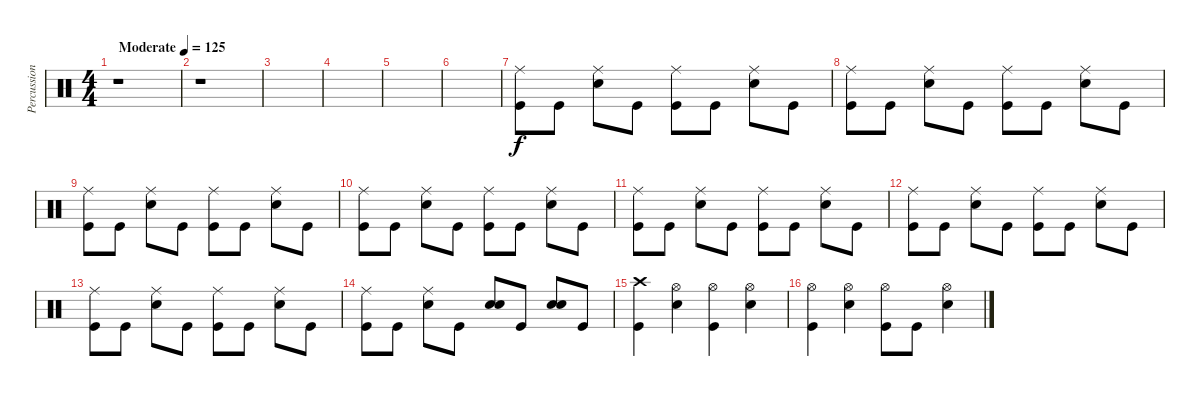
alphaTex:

\track ("Percussion" "Percussion") {instrument percussion}
\staff {score}
\articulation defaults
\ts (4 4)
\tempo (125 "Moderate")
\clef neutral
\ks c
r.1{dy f} |
r.1 |
|
|
|
|
("Ride (middle)" "Kick (hit)").8 "Kick (hit)".8 ("Ride (middle)" "Snare (hit) 2").8 "Kick (hit)".8 ("Ride (middle)" "Kick (hit)").8 "Kick (hit)".8 ("Ride (middle)" "Snare (hit) 2").8 "Kick (hit)".8 |
("Ride (middle)" "Kick (hit)").8 "Kick (hit)".8 ("Ride (middle)" "Snare (hit) 2").8 "Kick (hit)".8 ("Ride (middle)" "Kick (hit)").8 "Kick (hit)".8 ("Ride (middle)" "Snare (hit) 2").8 "Kick (hit)".8 |
("Ride (middle)" "Kick (hit)").8 "Kick (hit)".8 ("Ride (middle)" "Snare (hit) 2").8 "Kick (hit)".8 ("Ride (middle)" "Kick (hit)").8 "Kick (hit)".8 ("Ride (middle)" "Snare (hit) 2").8 "Kick (hit)".8 |
("Ride (middle)" "Kick (hit)").8 "Kick (hit)".8 ("Ride (middle)" "Snare (hit) 2").8 "Kick (hit)".8 ("Ride (middle)" "Kick (hit)").8 "Kick (hit)".8 ("Ride (middle)" "Snare (hit) 2").8 "Kick (hit)".8 |
("Ride (middle)" "Kick (hit)").8 "Kick (hit)".8 ("Ride (middle)" "Snare (hit) 2").8 "Kick (hit)".8 ("Ride (middle)" "Kick (hit)").8 "Kick (hit)".8 ("Ride (middle)" "Snare (hit) 2").8 "Kick (hit)".8 |
("Ride (middle)" "Kick (hit)").8 "Kick (hit)".8 ("Ride (middle)" "Snare (hit) 2").8 "Kick (hit)".8 ("Ride (middle)" "Kick (hit)").8 "Kick (hit)".8 ("Ride (middle)" "Snare (hit) 2").8 "Kick (hit)".8 |
("Ride (middle)" "Kick (hit)").8 "Kick (hit)".8 ("Ride (middle)" "Snare (hit) 2").8 "Kick (hit)".8 ("Ride (middle)" "Kick (hit)").8 "Kick (hit)".8 ("Ride (middle)" "Snare (hit) 2").8 "Kick (hit)".8 |
("Ride (middle)" "Kick (hit)").8 "Kick (hit)".8 ("Ride (middle)" "Snare (hit) 2").8 "Kick (hit)".8 ("Snare (hit) 2" "Snare (hit) 2").8 "Kick (hit)".8 ("Snare (hit) 2" "Snare (hit) 2").8 "Kick (hit)".8 |
("Crash high (hit)" "Kick (hit)").4 ("Hi-Hat (open)" "Snare (hit) 2").4 ("Hi-Hat (open)" "Kick (hit)").4 ("Hi-Hat (open)" "Snare (hit) 2").4 |
("Hi-Hat (open)" "Kick (hit)").4 ("Hi-Hat (open)" "Snare (hit) 2").4 ("Hi-Hat (open)" "Kick (hit)").8 "Kick (hit)".8 ("Hi-Hat (open)" "Snare (hit) 2").4
